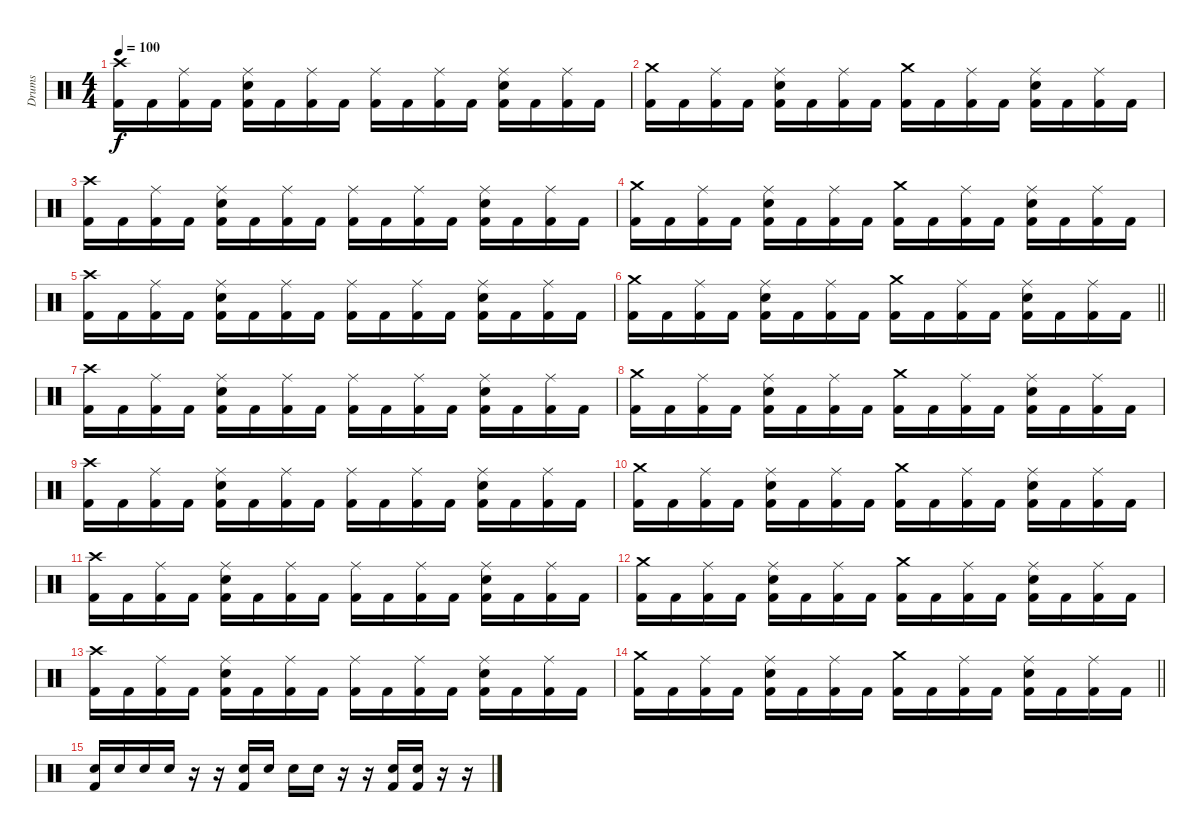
\track ("Drums" "Drums") {instrument percussion}
\staff {score}
\articulation defaults
\ts (4 4)
\tempo 100
\clef neutral
\ks c
("Crash high (hit)" "Kick (hit) 2").16{dy f} "Kick (hit) 2".16 ("Ride (middle)" "Kick (hit) 2").16 "Kick (hit) 2".16 ("Ride (middle)" "Snare (hit) 2" "Kick (hit) 2").16 "Kick (hit) 2".16 ("Ride (middle)" "Kick (hit) 2").16 "Kick (hit) 2".16 ("Ride (middle)" "Kick (hit) 2").16 "Kick (hit) 2".16 ("Ride (middle)" "Kick (hit) 2").16 "Kick (hit) 2".16 ("Ride (middle)" "Snare (hit) 2" "Kick (hit) 2").16 "Kick (hit) 2".16 ("Ride (middle)" "Kick (hit) 2").16 "Kick (hit) 2".16 |
("Crash medium (hit)" "Kick (hit) 2").16 "Kick (hit) 2".16 ("Ride (middle)" "Kick (hit) 2").16 "Kick (hit) 2".16 ("Ride (middle)" "Snare (hit) 2" "Kick (hit) 2").16 "Kick (hit) 2".16 ("Ride (middle)" "Kick (hit) 2").16 "Kick (hit) 2".16 ("Crash medium (hit)" "Kick (hit) 2").16 "Kick (hit) 2".16 ("Ride (middle)" "Kick (hit) 2").16 "Kick (hit) 2".16 ("Ride (middle)" "Snare (hit) 2" "Kick (hit) 2").16 "Kick (hit) 2".16 ("Ride (middle)" "Kick (hit) 2").16 "Kick (hit) 2".16 |
("Crash high (hit)" "Kick (hit) 2").16 "Kick (hit) 2".16 ("Ride (middle)" "Kick (hit) 2").16 "Kick (hit) 2".16 ("Ride (middle)" "Snare (hit) 2" "Kick (hit) 2").16 "Kick (hit) 2".16 ("Ride (middle)" "Kick (hit) 2").16 "Kick (hit) 2".16 ("Ride (middle)" "Kick (hit) 2").16 "Kick (hit) 2".16 ("Ride (middle)" "Kick (hit) 2").16 "Kick (hit) 2".16 ("Ride (middle)" "Snare (hit) 2" "Kick (hit) 2").16 "Kick (hit) 2".16 ("Ride (middle)" "Kick (hit) 2").16 "Kick (hit) 2".16 |
("Crash medium (hit)" "Kick (hit) 2").16 "Kick (hit) 2".16 ("Ride (middle)" "Kick (hit) 2").16 "Kick (hit) 2".16 ("Ride (middle)" "Snare (hit) 2" "Kick (hit) 2").16 "Kick (hit) 2".16 ("Ride (middle)" "Kick (hit) 2").16 "Kick (hit) 2".16 ("Crash medium (hit)" "Kick (hit) 2").16 "Kick (hit) 2".16 ("Ride (middle)" "Kick (hit) 2").16 "Kick (hit) 2".16 ("Ride (middle)" "Snare (hit) 2" "Kick (hit) 2").16 "Kick (hit) 2".16 ("Ride (middle)" "Kick (hit) 2").16 "Kick (hit) 2".16 |
("Crash high (hit)" "Kick (hit) 2").16 "Kick (hit) 2".16 ("Ride (middle)" "Kick (hit) 2").16 "Kick (hit) 2".16 ("Ride (middle)" "Snare (hit) 2" "Kick (hit) 2").16 "Kick (hit) 2".16 ("Ride (middle)" "Kick (hit) 2").16 "Kick (hit) 2".16 ("Ride (middle)" "Kick (hit) 2").16 "Kick (hit) 2".16 ("Ride (middle)" "Kick (hit) 2").16 "Kick (hit) 2".16 ("Ride (middle)" "Snare (hit) 2" "Kick (hit) 2").16 "Kick (hit) 2".16 ("Ride (middle)" "Kick (hit) 2").16 "Kick (hit) 2".16 |
\barLineRight lightlight
("Crash medium (hit)" "Kick (hit) 2").16 "Kick (hit) 2".16 ("Ride (middle)" "Kick (hit) 2").16 "Kick (hit) 2".16 ("Ride (middle)" "Snare (hit) 2" "Kick (hit) 2").16 "Kick (hit) 2".16 ("Ride (middle)" "Kick (hit) 2").16 "Kick (hit) 2".16 ("Crash medium (hit)" "Kick (hit) 2").16 "Kick (hit) 2".16 ("Ride (middle)" "Kick (hit) 2").16 "Kick (hit) 2".16 ("Ride (middle)" "Snare (hit) 2" "Kick (hit) 2").16 "Kick (hit) 2".16 ("Ride (middle)" "Kick (hit) 2").16 "Kick (hit) 2".16 |
("Crash high (hit)" "Kick (hit) 2").16 "Kick (hit) 2".16 ("Ride (middle)" "Kick (hit) 2").16 "Kick (hit) 2".16 ("Ride (middle)" "Snare (hit) 2" "Kick (hit) 2").16 "Kick (hit) 2".16 ("Ride (middle)" "Kick (hit) 2").16 "Kick (hit) 2".16 ("Ride (middle)" "Kick (hit) 2").16 "Kick (hit) 2".16 ("Ride (middle)" "Kick (hit) 2").16 "Kick (hit) 2".16 ("Ride (middle)" "Snare (hit) 2" "Kick (hit) 2").16 "Kick (hit) 2".16 ("Ride (middle)" "Kick (hit) 2").16 "Kick (hit) 2".16 |
("Crash medium (hit)" "Kick (hit) 2").16 "Kick (hit) 2".16 ("Ride (middle)" "Kick (hit) 2").16 "Kick (hit) 2".16 ("Ride (middle)" "Snare (hit) 2" "Kick (hit) 2").16 "Kick (hit) 2".16 ("Ride (middle)" "Kick (hit) 2").16 "Kick (hit) 2".16 ("Crash medium (hit)" "Kick (hit) 2").16 "Kick (hit) 2".16 ("Ride (middle)" "Kick (hit) 2").16 "Kick (hit) 2".16 ("Ride (middle)" "Snare (hit) 2" "Kick (hit) 2").16 "Kick (hit) 2".16 ("Ride (middle)" "Kick (hit) 2").16 "Kick (hit) 2".16 |
("Crash high (hit)" "Kick (hit) 2").16 "Kick (hit) 2".16 ("Ride (middle)" "Kick (hit) 2").16 "Kick (hit) 2".16 ("Ride (middle)" "Snare (hit) 2" "Kick (hit) 2").16 "Kick (hit) 2".16 ("Ride (middle)" "Kick (hit) 2").16 "Kick (hit) 2".16 ("Ride (middle)" "Kick (hit) 2").16 "Kick (hit) 2".16 ("Ride (middle)" "Kick (hit) 2").16 "Kick (hit) 2".16 ("Ride (middle)" "Snare (hit) 2" "Kick (hit) 2").16 "Kick (hit) 2".16 ("Ride (middle)" "Kick (hit) 2").16 "Kick (hit) 2".16 |
("Crash medium (hit)" "Kick (hit) 2").16 "Kick (hit) 2".16 ("Ride (middle)" "Kick (hit) 2").16 "Kick (hit) 2".16 ("Ride (middle)" "Snare (hit) 2" "Kick (hit) 2").16 "Kick (hit) 2".16 ("Ride (middle)" "Kick (hit) 2").16 "Kick (hit) 2".16 ("Crash medium (hit)" "Kick (hit) 2").16 "Kick (hit) 2".16 ("Ride (middle)" "Kick (hit) 2").16 "Kick (hit) 2".16 ("Ride (middle)" "Snare (hit) 2" "Kick (hit) 2").16 "Kick (hit) 2".16 ("Ride (middle)" "Kick (hit) 2").16 "Kick (hit) 2".16 |
("Crash high (hit)" "Kick (hit) 2").16 "Kick (hit) 2".16 ("Ride (middle)" "Kick (hit) 2").16 "Kick (hit) 2".16 ("Ride (middle)" "Snare (hit) 2" "Kick (hit) 2").16 "Kick (hit) 2".16 ("Ride (middle)" "Kick (hit) 2").16 "Kick (hit) 2".16 ("Ride (middle)" "Kick (hit) 2").16 "Kick (hit) 2".16 ("Ride (middle)" "Kick (hit) 2").16 "Kick (hit) 2".16 ("Ride (middle)" "Snare (hit) 2" "Kick (hit) 2").16 "Kick (hit) 2".16 ("Ride (middle)" "Kick (hit) 2").16 "Kick (hit) 2".16 |
("Crash medium (hit)" "Kick (hit) 2").16 "Kick (hit) 2".16 ("Ride (middle)" "Kick (hit) 2").16 "Kick (hit) 2".16 ("Ride (middle)" "Snare (hit) 2" "Kick (hit) 2").16 "Kick (hit) 2".16 ("Ride (middle)" "Kick (hit) 2").16 "Kick (hit) 2".16 ("Crash medium (hit)" "Kick (hit) 2").16 "Kick (hit) 2".16 ("Ride (middle)" "Kick (hit) 2").16 "Kick (hit) 2".16 ("Ride (middle)" "Snare (hit) 2" "Kick (hit) 2").16 "Kick (hit) 2".16 ("Ride (middle)" "Kick (hit) 2").16 "Kick (hit) 2".16 |
("Crash high (hit)" "Kick (hit) 2").16 "Kick (hit) 2".16 ("Ride (middle)" "Kick (hit) 2").16 "Kick (hit) 2".16 ("Ride (middle)" "Snare (hit) 2" "Kick (hit) 2").16 "Kick (hit) 2".16 ("Ride (middle)" "Kick (hit) 2").16 "Kick (hit) 2".16 ("Ride (middle)" "Kick (hit) 2").16 "Kick (hit) 2".16 ("Ride (middle)" "Kick (hit) 2").16 "Kick (hit) 2".16 ("Ride (middle)" "Snare (hit) 2" "Kick (hit) 2").16 "Kick (hit) 2".16 ("Ride (middle)" "Kick (hit) 2").16 "Kick (hit) 2".16 |
\barLineRight lightlight
("Crash medium (hit)" "Kick (hit) 2").16 "Kick (hit) 2".16 ("Ride (middle)" "Kick (hit) 2").16 "Kick (hit) 2".16 ("Ride (middle)" "Snare (hit) 2" "Kick (hit) 2").16 "Kick (hit) 2".16 ("Ride (middle)" "Kick (hit) 2").16 "Kick (hit) 2".16 ("Crash medium (hit)" "Kick (hit) 2").16 "Kick (hit) 2".16 ("Ride (middle)" "Kick (hit) 2").16 "Kick (hit) 2".16 ("Ride (middle)" "Snare (hit) 2" "Kick (hit) 2").16 "Kick (hit) 2".16 ("Ride (middle)" "Kick (hit) 2").16 "Kick (hit) 2".16 |
("Snare (hit) 2" "Kick (hit) 2").16 "Snare (hit) 2".16 "Snare (hit) 2".16 "Snare (hit) 2".16 r.16 r.16 ("Snare (hit) 2" "Kick (hit) 2").16 "Snare (hit) 2".16 "Snare (hit) 2".16 "Snare (hit) 2".16 r.16 r.16 ("Snare (hit) 2" "Kick (hit) 2").16 ("Snare (hit) 2" "Kick (hit) 2").16 r.16 r.16
